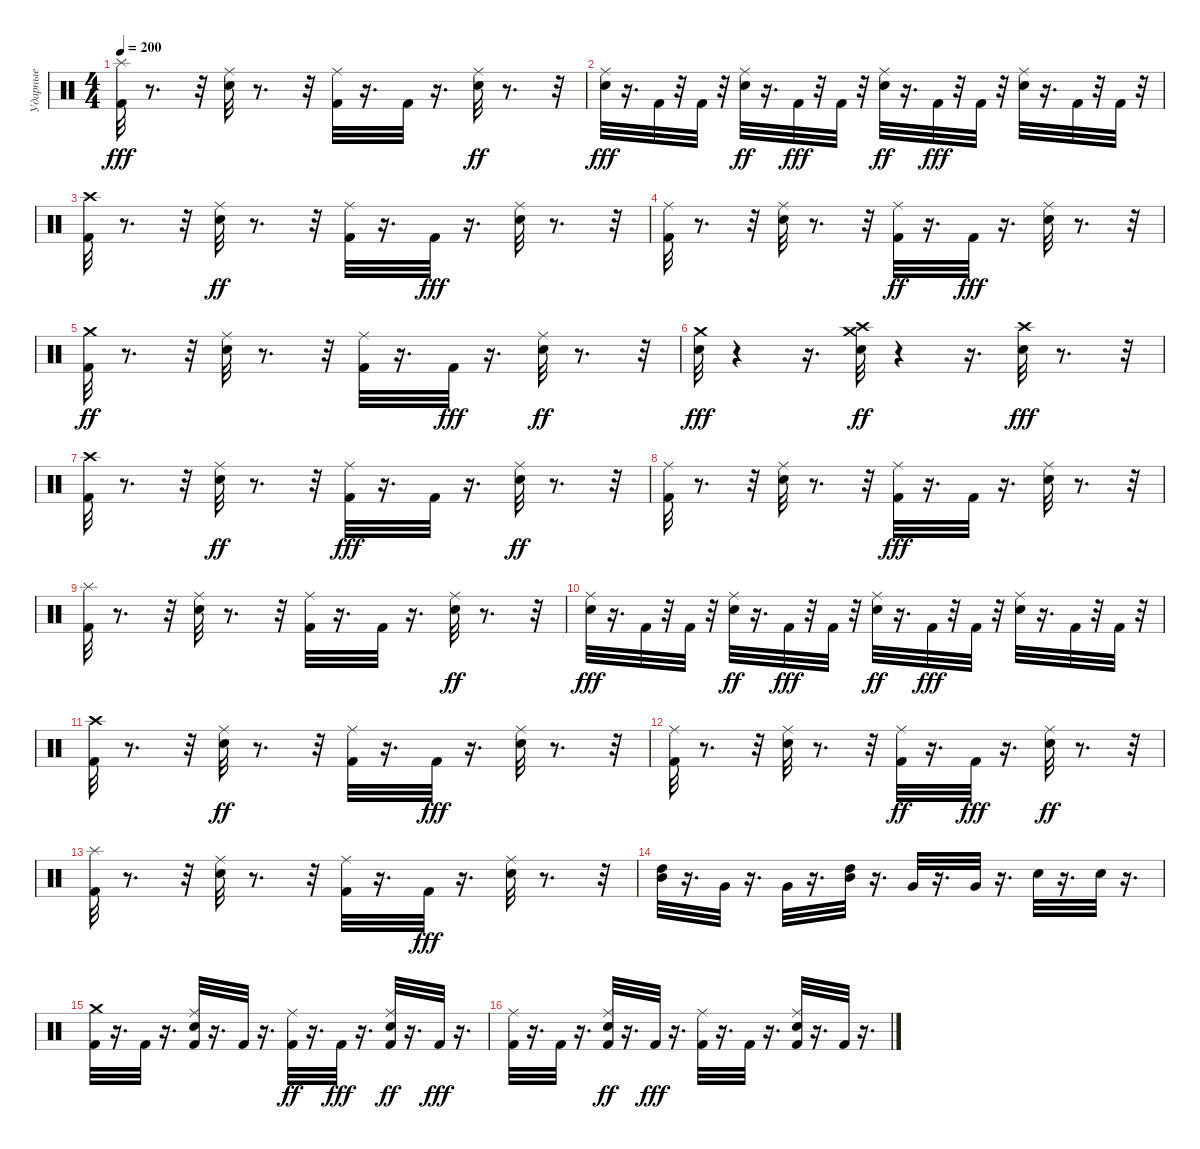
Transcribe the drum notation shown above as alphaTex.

\track ("Ударные" "Ударные") {instrument percussion}
\staff {score}
\articulation defaults
\ts (4 4)
\tempo 200
\clef neutral
\ks c
("Splash (hit)" "Kick (hit) 2").32{dy fff} r.8{d} r.32 ("Ride (middle)" "Snare (hit) 2").32 r.8{d} r.32 ("Ride (middle)" "Kick (hit) 2").32 r.16{d} "Kick (hit) 2".32 r.16{d} ("Snare (hit) 2" "Ride (middle)").32{dy ff} r.8{d} r.32 |
("Ride (middle)" "Snare (hit) 2").32{dy fff} r.16{d} "Kick (hit) 2".32 r.32 "Kick (hit) 2".32 r.32 ("Snare (hit) 2" "Ride (middle)").32{dy ff} r.16{d} "Kick (hit) 2".32{dy fff} r.32 "Kick (hit) 2".32 r.32 ("Snare (hit) 2" "Ride (middle)").32{dy ff} r.16{d} "Kick (hit) 2".32{dy fff} r.32 "Kick (hit) 2".32 r.32 ("Ride (middle)" "Snare (hit) 2").32 r.16{d} "Kick (hit) 2".32 r.32 "Kick (hit) 2".32 r.32 |
("Crash high (hit)" "Kick (hit) 2").32 r.8{d} r.32 ("Snare (hit) 2" "Ride (middle)").32{dy ff} r.8{d} r.32 ("Kick (hit) 2" "Ride (middle)").32 r.16{d} "Kick (hit) 2".32{dy fff} r.16{d} ("Ride (middle)" "Snare (hit) 2").32 r.8{d} r.32 |
("Ride (middle)" "Kick (hit) 2").32 r.8{d} r.32 ("Ride (middle)" "Snare (hit) 2").32 r.8{d} r.32 ("Kick (hit) 2" "Ride (middle)").32{dy ff} r.16{d} "Kick (hit) 2".32{dy fff} r.16{d} ("Ride (middle)" "Snare (hit) 2").32 r.8{d} r.32 |
("Kick (hit) 2" "Crash medium (hit)").32{dy ff} r.8{d} r.32 ("Snare (hit) 2" "Ride (middle)").32 r.8{d} r.32 ("Kick (hit) 2" "Ride (middle)").32 r.16{d} "Kick (hit) 2".32{dy fff} r.16{d} ("Snare (hit) 2" "Ride (middle)").32{dy ff} r.8{d} r.32 |
("Crash medium (hit)" "Snare (hit) 2").32{dy fff} r.4 r.16{d} ("Crash high (hit)" "Snare (hit) 2" "Crash medium (hit)").32{dy ff} r.4 r.16{d} ("Crash high (hit)" "Snare (hit) 2").32{dy fff} r.8{d} r.32 |
("Crash high (hit)" "Kick (hit) 2").32 r.8{d} r.32 ("Snare (hit) 2" "Ride (middle)").32{dy ff} r.8{d} r.32 ("Ride (middle)" "Kick (hit) 2").32{dy fff} r.16{d} "Kick (hit) 2".32 r.16{d} ("Snare (hit) 2" "Ride (middle)").32{dy ff} r.8{d} r.32 |
("Kick (hit) 2" "Ride (middle)").32 r.8{d} r.32 ("Snare (hit) 2" "Ride (middle)").32 r.8{d} r.32 ("Ride (middle)" "Kick (hit) 2").32{dy fff} r.16{d} "Kick (hit) 2".32 r.16{d} ("Ride (middle)" "Snare (hit) 2").32 r.8{d} r.32 |
("Splash (hit)" "Kick (hit) 2").32 r.8{d} r.32 ("Ride (middle)" "Snare (hit) 2").32 r.8{d} r.32 ("Ride (middle)" "Kick (hit) 2").32 r.16{d} "Kick (hit) 2".32 r.16{d} ("Snare (hit) 2" "Ride (middle)").32{dy ff} r.8{d} r.32 |
("Ride (middle)" "Snare (hit) 2").32{dy fff} r.16{d} "Kick (hit) 2".32 r.32 "Kick (hit) 2".32 r.32 ("Snare (hit) 2" "Ride (middle)").32{dy ff} r.16{d} "Kick (hit) 2".32{dy fff} r.32 "Kick (hit) 2".32 r.32 ("Snare (hit) 2" "Ride (middle)").32{dy ff} r.16{d} "Kick (hit) 2".32{dy fff} r.32 "Kick (hit) 2".32 r.32 ("Ride (middle)" "Snare (hit) 2").32 r.16{d} "Kick (hit) 2".32 r.32 "Kick (hit) 2".32 r.32 |
("Crash high (hit)" "Kick (hit) 2").32 r.8{d} r.32 ("Snare (hit) 2" "Ride (middle)").32{dy ff} r.8{d} r.32 ("Kick (hit) 2" "Ride (middle)").32 r.16{d} "Kick (hit) 2".32{dy fff} r.16{d} ("Ride (middle)" "Snare (hit) 2").32 r.8{d} r.32 |
("Ride (middle)" "Kick (hit) 2").32 r.8{d} r.32 ("Ride (middle)" "Snare (hit) 2").32 r.8{d} r.32 ("Kick (hit) 2" "Ride (middle)").32{dy ff} r.16{d} "Kick (hit) 2".32{dy fff} r.16{d} ("Snare (hit) 2" "Ride (middle)").32{dy ff} r.8{d} r.32 |
("Kick (hit) 2" "Splash (hit)").32 r.8{d} r.32 ("Snare (hit) 2" "Ride (middle)").32 r.8{d} r.32 ("Kick (hit) 2" "Ride (middle)").32 r.16{d} "Kick (hit) 2".32{dy fff} r.16{d} ("Ride (middle)" "Snare (hit) 2").32 r.8{d} r.32 |
("Mid Tom (hit)" "High Tom (hit)").32 r.16{d} "Very Low Tom (hit)".32 r.16{d} "Very Low Tom (hit)".32 r.16{d} ("Mid Tom (hit)" "High Tom (hit)").32 r.16{d} "Very Low Tom (hit)".32 r.16{d} "Very Low Tom (hit)".32 r.16{d} "Snare (hit) 2".32 r.16{d} "Snare (hit) 2".32 r.16{d} |
("Crash medium (hit)" "Kick (hit) 2").32 r.16{d} "Kick (hit) 2".32 r.16{d} ("Kick (hit) 2" "Ride (middle)" "Snare (hit) 2").32 r.16{d} "Kick (hit) 2".32 r.16{d} ("Kick (hit) 2" "Ride (middle)").32{dy ff} r.16{d} "Kick (hit) 2".32{dy fff} r.16{d} ("Kick (hit) 2" "Snare (hit) 2" "Ride (middle)").32{dy ff} r.16{d} "Kick (hit) 2".32{dy fff} r.16{d} |
("Ride (middle)" "Kick (hit) 2").32 r.16{d} "Kick (hit) 2".32 r.16{d} ("Kick (hit) 2" "Snare (hit) 2" "Ride (middle)").32{dy ff} r.16{d} "Kick (hit) 2".32{dy fff} r.16{d} ("Ride (middle)" "Kick (hit) 2").32 r.16{d} "Kick (hit) 2".32 r.16{d} ("Ride (middle)" "Snare (hit) 2" "Kick (hit) 2").32 r.16{d} "Kick (hit) 2".32 r.16{d}
